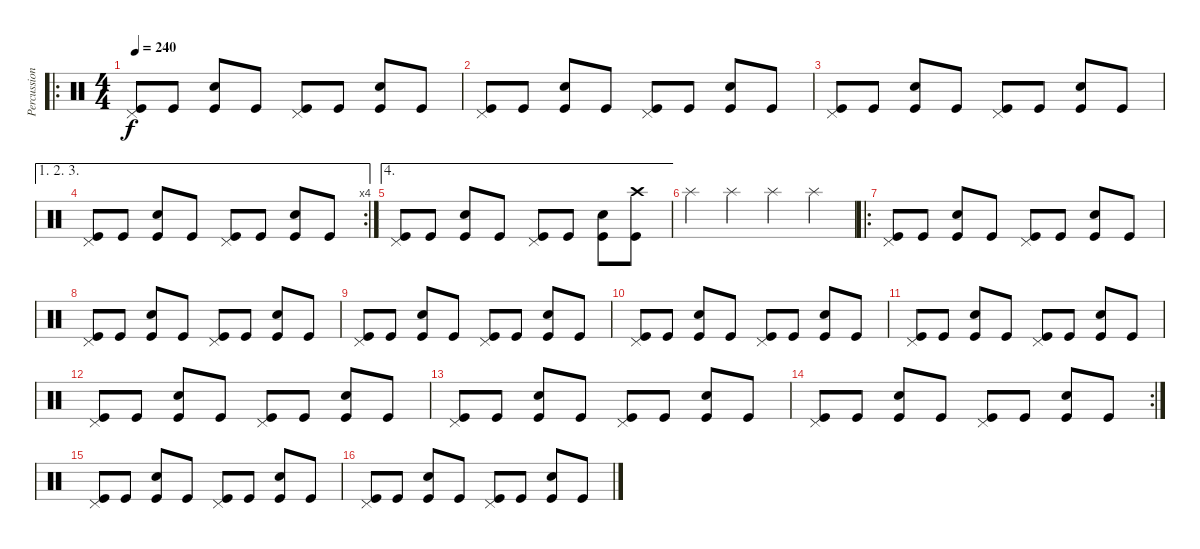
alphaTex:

\track ("Percussion" "Percussion") {instrument percussion}
\staff {score}
\articulation defaults
\ro
\ts (4 4)
\tempo 240
\clef neutral
\ks c
("Pedal Hi-Hat (hit)" "Kick (hit)").8{dy f} "Kick (hit)".8 ("Snare (hit) 2" "Kick (hit)").8 "Kick (hit)".8 ("Pedal Hi-Hat (hit)" "Kick (hit)").8 "Kick (hit)".8 ("Snare (hit) 2" "Kick (hit)").8 "Kick (hit)".8 |
("Pedal Hi-Hat (hit)" "Kick (hit)").8 "Kick (hit)".8 ("Snare (hit) 2" "Kick (hit)").8 "Kick (hit)".8 ("Pedal Hi-Hat (hit)" "Kick (hit)").8 "Kick (hit)".8 ("Snare (hit) 2" "Kick (hit)").8 "Kick (hit)".8 |
("Pedal Hi-Hat (hit)" "Kick (hit)").8 "Kick (hit)".8 ("Snare (hit) 2" "Kick (hit)").8 "Kick (hit)".8 ("Pedal Hi-Hat (hit)" "Kick (hit)").8 "Kick (hit)".8 ("Snare (hit) 2" "Kick (hit)").8 "Kick (hit)".8 |
\ae (1 2 3)
\rc 4
("Pedal Hi-Hat (hit)" "Kick (hit)").8 "Kick (hit)".8 ("Snare (hit) 2" "Kick (hit)").8 "Kick (hit)".8 ("Pedal Hi-Hat (hit)" "Kick (hit)").8 "Kick (hit)".8 ("Snare (hit) 2" "Kick (hit)").8 "Kick (hit)".8 |
\ae 4
("Pedal Hi-Hat (hit)" "Kick (hit)").8 "Kick (hit)".8 ("Snare (hit) 2" "Kick (hit)").8 "Kick (hit)".8 ("Pedal Hi-Hat (hit)" "Kick (hit)").8 "Kick (hit)".8 ("Snare (hit) 2" "Kick (hit)").8 ("Crash high (hit)" "Kick (hit)").8 |
"Splash (hit)".4 "Splash (hit)".4 "Splash (hit)".4 "Splash (hit)".4 |
\ro
("Pedal Hi-Hat (hit)" "Kick (hit)").8 "Kick (hit)".8 ("Snare (hit) 2" "Kick (hit)").8 "Kick (hit)".8 ("Pedal Hi-Hat (hit)" "Kick (hit)").8 "Kick (hit)".8 ("Snare (hit) 2" "Kick (hit)").8 "Kick (hit)".8 |
("Pedal Hi-Hat (hit)" "Kick (hit)").8 "Kick (hit)".8 ("Snare (hit) 2" "Kick (hit)").8 "Kick (hit)".8 ("Pedal Hi-Hat (hit)" "Kick (hit)").8 "Kick (hit)".8 ("Snare (hit) 2" "Kick (hit)").8 "Kick (hit)".8 |
("Pedal Hi-Hat (hit)" "Kick (hit)").8 "Kick (hit)".8 ("Snare (hit) 2" "Kick (hit)").8 "Kick (hit)".8 ("Pedal Hi-Hat (hit)" "Kick (hit)").8 "Kick (hit)".8 ("Snare (hit) 2" "Kick (hit)").8 "Kick (hit)".8 |
("Pedal Hi-Hat (hit)" "Kick (hit)").8 "Kick (hit)".8 ("Snare (hit) 2" "Kick (hit)").8 "Kick (hit)".8 ("Pedal Hi-Hat (hit)" "Kick (hit)").8 "Kick (hit)".8 ("Snare (hit) 2" "Kick (hit)").8 "Kick (hit)".8 |
("Pedal Hi-Hat (hit)" "Kick (hit)").8 "Kick (hit)".8 ("Snare (hit) 2" "Kick (hit)").8 "Kick (hit)".8 ("Pedal Hi-Hat (hit)" "Kick (hit)").8 "Kick (hit)".8 ("Snare (hit) 2" "Kick (hit)").8 "Kick (hit)".8 |
("Pedal Hi-Hat (hit)" "Kick (hit)").8 "Kick (hit)".8 ("Snare (hit) 2" "Kick (hit)").8 "Kick (hit)".8 ("Pedal Hi-Hat (hit)" "Kick (hit)").8 "Kick (hit)".8 ("Snare (hit) 2" "Kick (hit)").8 "Kick (hit)".8 |
("Pedal Hi-Hat (hit)" "Kick (hit)").8 "Kick (hit)".8 ("Snare (hit) 2" "Kick (hit)").8 "Kick (hit)".8 ("Pedal Hi-Hat (hit)" "Kick (hit)").8 "Kick (hit)".8 ("Snare (hit) 2" "Kick (hit)").8 "Kick (hit)".8 |
\rc 2
("Pedal Hi-Hat (hit)" "Kick (hit)").8 "Kick (hit)".8 ("Snare (hit) 2" "Kick (hit)").8 "Kick (hit)".8 ("Pedal Hi-Hat (hit)" "Kick (hit)").8 "Kick (hit)".8 ("Snare (hit) 2" "Kick (hit)").8 "Kick (hit)".8 |
("Pedal Hi-Hat (hit)" "Kick (hit)").8 "Kick (hit)".8 ("Snare (hit) 2" "Kick (hit)").8 "Kick (hit)".8 ("Pedal Hi-Hat (hit)" "Kick (hit)").8 "Kick (hit)".8 ("Snare (hit) 2" "Kick (hit)").8 "Kick (hit)".8 |
("Pedal Hi-Hat (hit)" "Kick (hit)").8 "Kick (hit)".8 ("Snare (hit) 2" "Kick (hit)").8 "Kick (hit)".8 ("Pedal Hi-Hat (hit)" "Kick (hit)").8 "Kick (hit)".8 ("Snare (hit) 2" "Kick (hit)").8 "Kick (hit)".8
